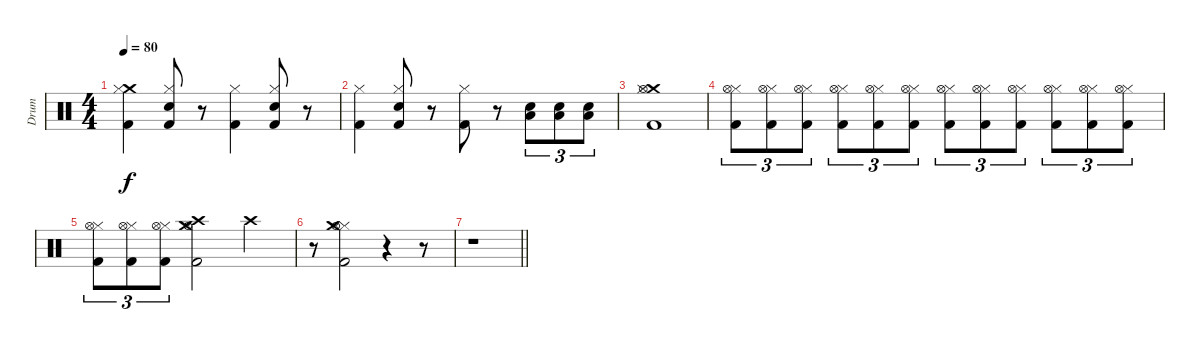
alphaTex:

\track ("Drum" "Drum") {instrument percussion}
\staff {score}
\articulation defaults
\ts (4 4)
\tempo 80
\clef neutral
\ks c
("Crash medium (hit)" "Kick (hit) 2" "Hi-Hat (closed)").4{dy f} ("Hi-Hat (closed)" "Electric Snare (hit)" "Kick (hit) 2").8 r.8 ("Kick (hit) 2" "Hi-Hat (closed)").4 ("Hi-Hat (closed)" "Electric Snare (hit)" "Kick (hit) 2").8 r.8 |
("Kick (hit) 2" "Hi-Hat (closed)").4 ("Hi-Hat (closed)" "Electric Snare (hit)" "Kick (hit) 2").8 r.8 ("Kick (hit) 2" "Hi-Hat (closed)").8 r.8 ("Electric Snare (hit)" "Low Floor Tom (hit)").8{tu (3 2)} ("Electric Snare (hit)" "Low Floor Tom (hit)").8{tu (3 2)} ("Electric Snare (hit)" "Low Floor Tom (hit)").8{tu (3 2)} |
("Crash medium (hit)" "Kick (hit) 2" "Hi-Hat (closed)" "Hi-Hat (open)").1 |
("Kick (hit) 2" "Hi-Hat (closed)" "Hi-Hat (open)").8{tu (3 2)} ("Kick (hit) 2" "Hi-Hat (closed)" "Hi-Hat (open)").8{tu (3 2)} ("Kick (hit) 2" "Hi-Hat (closed)" "Hi-Hat (open)").8{tu (3 2)} ("Kick (hit) 2" "Hi-Hat (closed)" "Hi-Hat (open)").8{tu (3 2)} ("Kick (hit) 2" "Hi-Hat (closed)" "Hi-Hat (open)").8{tu (3 2)} ("Kick (hit) 2" "Hi-Hat (closed)" "Hi-Hat (open)").8{tu (3 2)} ("Kick (hit) 2" "Hi-Hat (closed)" "Hi-Hat (open)").8{tu (3 2)} ("Kick (hit) 2" "Hi-Hat (closed)" "Hi-Hat (open)").8{tu (3 2)} ("Kick (hit) 2" "Hi-Hat (closed)" "Hi-Hat (open)").8{tu (3 2)} ("Kick (hit) 2" "Hi-Hat (closed)" "Hi-Hat (open)").8{tu (3 2)} ("Kick (hit) 2" "Hi-Hat (closed)" "Hi-Hat (open)").8{tu (3 2)} ("Kick (hit) 2" "Hi-Hat (closed)" "Hi-Hat (open)").8{tu (3 2)} |
("Kick (hit) 2" "Hi-Hat (closed)" "Hi-Hat (open)").8{tu (3 2)} ("Kick (hit) 2" "Hi-Hat (closed)" "Hi-Hat (open)").8{tu (3 2)} ("Kick (hit) 2" "Hi-Hat (closed)" "Hi-Hat (open)").8{tu (3 2)} ("Crash medium (hit)" "Kick (hit) 2" "Crash high (hit)" "Hi-Hat (open)").2 "Crash high (hit)".4 |
r.8 ("Hi-Hat (closed)" "Crash medium (hit)" "Kick (hit) 2" "Hi-Hat (open)").2 r.4 r.8 |
\barLineRight lightlight
r.1
